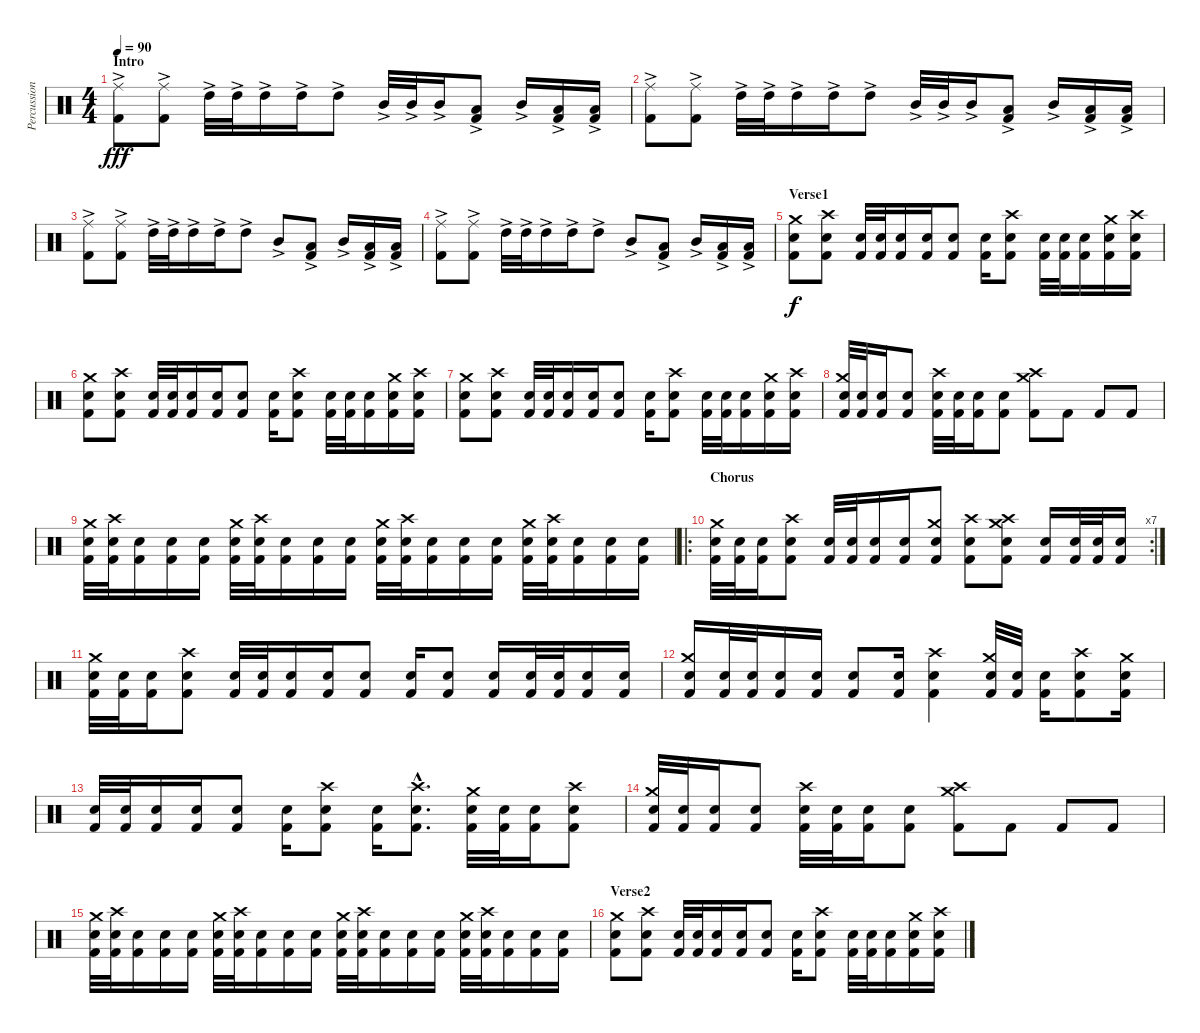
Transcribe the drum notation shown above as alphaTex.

\track ("Percussion" "Percussion") {instrument percussion}
\staff {score}
\articulation defaults
\ts (4 4)
\section ("" "Intro")
\tempo 90
\clef neutral
\ks c
("Ride (middle)"{ac} "Kick (hit) 2"{ac}).8{dy fff} ("Ride (middle)"{ac} "Kick (hit) 2"{ac}).8 "High Tom (hit)"{ac}.32 "High Tom (hit)"{ac}.32 "High Tom (hit)"{ac}.16 "High Tom (hit)"{ac}.16 "High Tom (hit)"{ac}.8 "Mid Tom (hit)"{ac}.32 "Mid Tom (hit)"{ac}.32 "Mid Tom (hit)"{ac}.16 ("Low Tom (hit)"{ac} "Kick (hit) 2"{ac}).8 "Mid Tom (hit)"{ac}.16 ("Low Tom (hit)"{ac} "Kick (hit) 2"{ac}).16 ("Low Tom (hit)"{ac} "Kick (hit) 2").16 |
("Ride (middle)"{ac} "Kick (hit) 2"{ac}).8 ("Ride (middle)"{ac} "Kick (hit) 2"{ac}).8 "High Tom (hit)"{ac}.32 "High Tom (hit)"{ac}.32 "High Tom (hit)"{ac}.16 "High Tom (hit)"{ac}.16 "High Tom (hit)"{ac}.8 "Mid Tom (hit)"{ac}.32 "Mid Tom (hit)"{ac}.32 "Mid Tom (hit)"{ac}.16 ("Low Tom (hit)"{ac} "Kick (hit) 2"{ac}).8 "Mid Tom (hit)"{ac}.16 ("Low Tom (hit)"{ac} "Kick (hit) 2"{ac}).16 ("Low Tom (hit)"{ac} "Kick (hit) 2").16 |
("Ride (middle)"{ac} "Kick (hit) 2"{ac}).8 ("Ride (middle)"{ac} "Kick (hit) 2"{ac}).8 "High Tom (hit)"{ac}.32 "High Tom (hit)"{ac}.32 "High Tom (hit)"{ac}.16 "High Tom (hit)"{ac}.16 "High Tom (hit)"{ac}.8 "Mid Tom (hit)"{ac}.8 ("Low Tom (hit)"{ac} "Kick (hit) 2"{ac}).8 "Mid Tom (hit)"{ac}.16 ("Low Tom (hit)"{ac} "Kick (hit) 2"{ac}).16 ("Low Tom (hit)"{ac} "Kick (hit) 2"{ac}).16 |
("Ride (middle)"{ac} "Kick (hit) 2"{ac}).8 ("Ride (middle)"{ac} "Kick (hit) 2"{ac}).8 "High Tom (hit)"{ac}.32 "High Tom (hit)"{ac}.32 "High Tom (hit)"{ac}.16 "High Tom (hit)"{ac}.16 "High Tom (hit)"{ac}.8 "Mid Tom (hit)"{ac}.8 ("Low Tom (hit)"{ac} "Kick (hit) 2"{ac}).8 "Mid Tom (hit)"{ac}.16 ("Low Tom (hit)"{ac} "Kick (hit) 2"{ac}).16 ("Low Tom (hit)"{ac} "Kick (hit) 2"{ac}).16 |
\section ("" "Verse1")
("Crash medium (hit)" "Kick (hit) 2" "Electric Snare (hit)").8{dy f} ("Crash high (hit)" "Kick (hit) 2" "Electric Snare (hit)").8 ("Kick (hit) 2" "Electric Snare (hit)").32 ("Kick (hit) 2" "Electric Snare (hit)").32 ("Kick (hit) 2" "Electric Snare (hit)").16 ("Kick (hit) 2" "Electric Snare (hit)").16 ("Kick (hit) 2" "Electric Snare (hit)").8 ("Kick (hit) 2" "Electric Snare (hit)").16 ("Crash high (hit)" "Kick (hit) 2" "Electric Snare (hit)").8 ("Kick (hit) 2" "Electric Snare (hit)").32 ("Kick (hit) 2" "Electric Snare (hit)").32 ("Kick (hit) 2" "Electric Snare (hit)").16 ("Crash medium (hit)" "Kick (hit) 2" "Electric Snare (hit)").16 ("Crash high (hit)" "Kick (hit) 2" "Electric Snare (hit)").16 |
("Crash medium (hit)" "Kick (hit) 2" "Electric Snare (hit)").8 ("Crash high (hit)" "Kick (hit) 2" "Electric Snare (hit)").8 ("Kick (hit) 2" "Electric Snare (hit)").32 ("Kick (hit) 2" "Electric Snare (hit)").32 ("Kick (hit) 2" "Electric Snare (hit)").16 ("Kick (hit) 2" "Electric Snare (hit)").16 ("Kick (hit) 2" "Electric Snare (hit)").8 ("Kick (hit) 2" "Electric Snare (hit)").16 ("Crash high (hit)" "Kick (hit) 2" "Electric Snare (hit)").8 ("Kick (hit) 2" "Electric Snare (hit)").32 ("Kick (hit) 2" "Electric Snare (hit)").32 ("Kick (hit) 2" "Electric Snare (hit)").16 ("Crash medium (hit)" "Kick (hit) 2" "Electric Snare (hit)").16 ("Crash high (hit)" "Kick (hit) 2" "Electric Snare (hit)").16 |
("Crash medium (hit)" "Kick (hit) 2" "Electric Snare (hit)").8 ("Crash high (hit)" "Kick (hit) 2" "Electric Snare (hit)").8 ("Kick (hit) 2" "Electric Snare (hit)").32 ("Kick (hit) 2" "Electric Snare (hit)").32 ("Kick (hit) 2" "Electric Snare (hit)").16 ("Kick (hit) 2" "Electric Snare (hit)").16 ("Kick (hit) 2" "Electric Snare (hit)").8 ("Kick (hit) 2" "Electric Snare (hit)").16 ("Crash high (hit)" "Kick (hit) 2" "Electric Snare (hit)").8 ("Kick (hit) 2" "Electric Snare (hit)").32 ("Kick (hit) 2" "Electric Snare (hit)").32 ("Kick (hit) 2" "Electric Snare (hit)").16 ("Crash medium (hit)" "Kick (hit) 2" "Electric Snare (hit)").16 ("Crash high (hit)" "Kick (hit) 2" "Electric Snare (hit)").16 |
("Crash medium (hit)" "Kick (hit) 2" "Electric Snare (hit)").32 ("Kick (hit) 2" "Electric Snare (hit)").32 ("Kick (hit) 2" "Electric Snare (hit)").16 ("Kick (hit) 2" "Electric Snare (hit)").8 ("Crash high (hit)" "Kick (hit) 2" "Electric Snare (hit)").32 ("Kick (hit) 2" "Electric Snare (hit)").32 ("Kick (hit) 2" "Electric Snare (hit)").16 ("Kick (hit) 2" "Electric Snare (hit)").8 ("Crash medium (hit)" "Crash high (hit)" "Kick (hit) 2").8 "Kick (hit) 2".8 "Kick (hit) 2".8 "Kick (hit) 2".8 |
("Crash medium (hit)" "Electric Snare (hit)" "Kick (hit) 2").32 ("Crash high (hit)" "Electric Snare (hit)" "Kick (hit) 2").32 ("Electric Snare (hit)" "Kick (hit) 2").16 ("Electric Snare (hit)" "Kick (hit) 2").16 ("Electric Snare (hit)" "Kick (hit) 2").16 ("Crash medium (hit)" "Electric Snare (hit)" "Kick (hit) 2").32 ("Crash high (hit)" "Electric Snare (hit)" "Kick (hit) 2").32 ("Electric Snare (hit)" "Kick (hit) 2").16 ("Electric Snare (hit)" "Kick (hit) 2").16 ("Electric Snare (hit)" "Kick (hit) 2").16 ("Crash medium (hit)" "Electric Snare (hit)" "Kick (hit) 2").32 ("Crash high (hit)" "Electric Snare (hit)" "Kick (hit) 2").32 ("Electric Snare (hit)" "Kick (hit) 2").16 ("Electric Snare (hit)" "Kick (hit) 2").16 ("Electric Snare (hit)" "Kick (hit) 2").16 ("Crash medium (hit)" "Electric Snare (hit)" "Kick (hit) 2").32 ("Crash high (hit)" "Electric Snare (hit)" "Kick (hit) 2").32 ("Electric Snare (hit)" "Kick (hit) 2").16 ("Electric Snare (hit)" "Kick (hit) 2").16 ("Electric Snare (hit)" "Kick (hit) 2").16 |
\ro
\rc 7
\section ("" "Chorus")
("Crash medium (hit)" "Electric Snare (hit)" "Kick (hit) 2").32 ("Electric Snare (hit)" "Kick (hit) 2").32 ("Electric Snare (hit)" "Kick (hit) 2").16 ("Crash high (hit)" "Electric Snare (hit)" "Kick (hit) 2").8 ("Kick (hit) 2" "Electric Snare (hit)").32 ("Kick (hit) 2" "Electric Snare (hit)").32 ("Kick (hit) 2" "Electric Snare (hit)").16 ("Kick (hit) 2" "Electric Snare (hit)").16 ("Crash medium (hit)" "Kick (hit) 2" "Electric Snare (hit)").8 ("Crash high (hit)" "Kick (hit) 2" "Electric Snare (hit)").8 ("Crash medium (hit)" "Kick (hit) 2" "Electric Snare (hit)" "Crash high (hit)").8 ("Kick (hit) 2" "Electric Snare (hit)").16 ("Kick (hit) 2" "Electric Snare (hit)").32 ("Kick (hit) 2" "Electric Snare (hit)").32 ("Kick (hit) 2" "Electric Snare (hit)").16 |
("Crash medium (hit)" "Electric Snare (hit)" "Kick (hit) 2").32 ("Electric Snare (hit)" "Kick (hit) 2").32 ("Electric Snare (hit)" "Kick (hit) 2").16 ("Crash high (hit)" "Electric Snare (hit)" "Kick (hit) 2").8 ("Kick (hit) 2" "Electric Snare (hit)").32 ("Kick (hit) 2" "Electric Snare (hit)").32 ("Kick (hit) 2" "Electric Snare (hit)").16 ("Kick (hit) 2" "Electric Snare (hit)").16 ("Kick (hit) 2" "Electric Snare (hit)").8 ("Kick (hit) 2" "Electric Snare (hit)").16 ("Kick (hit) 2" "Electric Snare (hit)").8 ("Kick (hit) 2" "Electric Snare (hit)").16 ("Kick (hit) 2" "Electric Snare (hit)").32 ("Kick (hit) 2" "Electric Snare (hit)").32 ("Kick (hit) 2" "Electric Snare (hit)").16 ("Kick (hit) 2" "Electric Snare (hit)").16 |
("Crash medium (hit)" "Kick (hit) 2" "Electric Snare (hit)").16 ("Kick (hit) 2" "Electric Snare (hit)").32 ("Kick (hit) 2" "Electric Snare (hit)").32 ("Kick (hit) 2" "Electric Snare (hit)").16 ("Kick (hit) 2" "Electric Snare (hit)").16 ("Kick (hit) 2" "Electric Snare (hit)").8 ("Kick (hit) 2" "Electric Snare (hit)").16 ("Crash high (hit)" "Kick (hit) 2" "Electric Snare (hit)").4 ("Crash medium (hit)" "Electric Snare (hit)" "Kick (hit) 2").32 ("Electric Snare (hit)" "Kick (hit) 2").32 ("Electric Snare (hit)" "Kick (hit) 2").16 ("Crash high (hit)" "Electric Snare (hit)" "Kick (hit) 2").8 ("Crash medium (hit)" "Kick (hit) 2" "Electric Snare (hit)").16 |
("Kick (hit) 2" "Electric Snare (hit)").32 ("Kick (hit) 2" "Electric Snare (hit)").32 ("Kick (hit) 2" "Electric Snare (hit)").16 ("Kick (hit) 2" "Electric Snare (hit)").16 ("Kick (hit) 2" "Electric Snare (hit)").8 ("Kick (hit) 2" "Electric Snare (hit)").16 ("Crash high (hit)" "Kick (hit) 2" "Electric Snare (hit)").8 ("Kick (hit) 2" "Electric Snare (hit)").16 ("Crash high (hit)"{hac} "Kick (hit) 2"{hac} "Electric Snare (hit)"{hac}).8{d} ("Crash medium (hit)" "Kick (hit) 2" "Electric Snare (hit)").32 ("Kick (hit) 2" "Electric Snare (hit)").32 ("Kick (hit) 2" "Electric Snare (hit)").16 ("Crash high (hit)" "Kick (hit) 2" "Electric Snare (hit)").8 |
("Crash medium (hit)" "Kick (hit) 2" "Electric Snare (hit)").32 ("Kick (hit) 2" "Electric Snare (hit)").32 ("Kick (hit) 2" "Electric Snare (hit)").16 ("Kick (hit) 2" "Electric Snare (hit)").8 ("Crash high (hit)" "Kick (hit) 2" "Electric Snare (hit)").32 ("Kick (hit) 2" "Electric Snare (hit)").32 ("Kick (hit) 2" "Electric Snare (hit)").16 ("Kick (hit) 2" "Electric Snare (hit)").8 ("Crash medium (hit)" "Crash high (hit)" "Kick (hit) 2").8 "Kick (hit) 2".8 "Kick (hit) 2".8 "Kick (hit) 2".8 |
("Crash medium (hit)" "Electric Snare (hit)" "Kick (hit) 2").32 ("Crash high (hit)" "Electric Snare (hit)" "Kick (hit) 2").32 ("Electric Snare (hit)" "Kick (hit) 2").16 ("Electric Snare (hit)" "Kick (hit) 2").16 ("Electric Snare (hit)" "Kick (hit) 2").16 ("Crash medium (hit)" "Electric Snare (hit)" "Kick (hit) 2").32 ("Crash high (hit)" "Electric Snare (hit)" "Kick (hit) 2").32 ("Electric Snare (hit)" "Kick (hit) 2").16 ("Electric Snare (hit)" "Kick (hit) 2").16 ("Electric Snare (hit)" "Kick (hit) 2").16 ("Crash medium (hit)" "Electric Snare (hit)" "Kick (hit) 2").32 ("Crash high (hit)" "Electric Snare (hit)" "Kick (hit) 2").32 ("Electric Snare (hit)" "Kick (hit) 2").16 ("Electric Snare (hit)" "Kick (hit) 2").16 ("Electric Snare (hit)" "Kick (hit) 2").16 ("Crash medium (hit)" "Electric Snare (hit)" "Kick (hit) 2").32 ("Crash high (hit)" "Electric Snare (hit)" "Kick (hit) 2").32 ("Electric Snare (hit)" "Kick (hit) 2").16 ("Electric Snare (hit)" "Kick (hit) 2").16 ("Electric Snare (hit)" "Kick (hit) 2").16 |
\section ("" "Verse2")
("Crash medium (hit)" "Kick (hit) 2" "Electric Snare (hit)").8 ("Crash high (hit)" "Kick (hit) 2" "Electric Snare (hit)").8 ("Kick (hit) 2" "Electric Snare (hit)").32 ("Kick (hit) 2" "Electric Snare (hit)").32 ("Kick (hit) 2" "Electric Snare (hit)").16 ("Kick (hit) 2" "Electric Snare (hit)").16 ("Kick (hit) 2" "Electric Snare (hit)").8 ("Kick (hit) 2" "Electric Snare (hit)").16 ("Crash high (hit)" "Kick (hit) 2" "Electric Snare (hit)").8 ("Kick (hit) 2" "Electric Snare (hit)").32 ("Kick (hit) 2" "Electric Snare (hit)").32 ("Kick (hit) 2" "Electric Snare (hit)").16 ("Crash medium (hit)" "Kick (hit) 2" "Electric Snare (hit)").16 ("Crash high (hit)" "Kick (hit) 2" "Electric Snare (hit)").16
